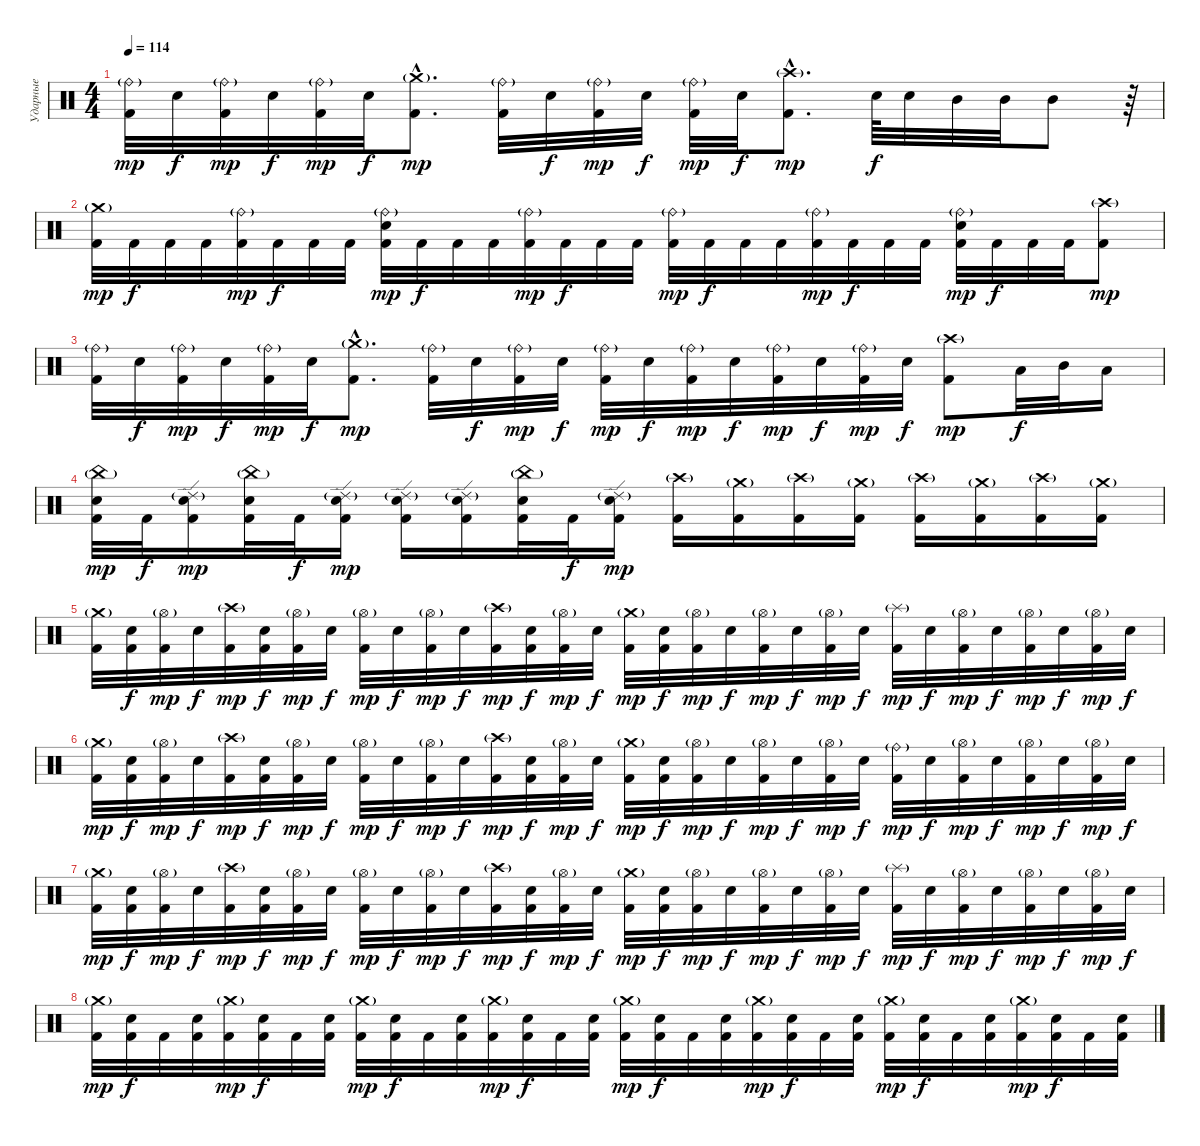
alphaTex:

\track ("Ударные" "Ударные") {instrument percussion}
\staff {score}
\articulation defaults
\ts (4 4)
\tempo 114
\clef neutral
\ks c
("Ride (bell)"{g} "Kick (hit) 2").32{dy mp} "Electric Snare (hit)".32{dy f} ("Ride (bell)"{g} "Kick (hit) 2").32{dy mp} "Electric Snare (hit)".32{dy f} ("Ride (bell)"{g} "Kick (hit) 2").32{dy mp} "Electric Snare (hit)".32{dy f} ("Crash medium (hit)"{g hac} "Kick (hit) 2"{hac}).8{d dy mp} ("Ride (bell)"{g} "Kick (hit) 2").32 "Electric Snare (hit)".32{dy f} ("Ride (bell)"{g} "Kick (hit) 2").32{dy mp} "Electric Snare (hit)".32{dy f} ("Ride (bell)"{g} "Kick (hit) 2").32{dy mp} "Electric Snare (hit)".32{dy f} ("Crash high (hit)"{g hac} "Kick (hit) 2"{hac}).8{d dy mp} "Electric Snare (hit)".64{dy f} "Electric Snare (hit)".32 "Mid Tom (hit)".32 "Mid Tom (hit)".32 "Mid Tom (hit)".8 r.64 |
("Crash medium (hit)"{g} "Kick (hit) 2").32{dy mp} "Kick (hit) 2".32{dy f} "Kick (hit) 2".32 "Kick (hit) 2".32 ("Ride (bell)"{g} "Kick (hit) 2").32{dy mp} "Kick (hit) 2".32{dy f} "Kick (hit) 2".32 "Kick (hit) 2".32 ("Ride (bell)"{g} "Electric Snare (hit)" "Kick (hit) 2").32{dy mp} "Kick (hit) 2".32{dy f} "Kick (hit) 2".32 "Kick (hit) 2".32 ("Ride (bell)"{g} "Kick (hit) 2").32{dy mp} "Kick (hit) 2".32{dy f} "Kick (hit) 2".32 "Kick (hit) 2".32 ("Ride (bell)"{g} "Kick (hit) 2").32{dy mp} "Kick (hit) 2".32{dy f} "Kick (hit) 2".32 "Kick (hit) 2".32 ("Ride (bell)"{g} "Kick (hit) 2").32{dy mp} "Kick (hit) 2".32{dy f} "Kick (hit) 2".32 "Kick (hit) 2".32 ("Ride (bell)"{g} "Electric Snare (hit)" "Kick (hit) 2").32{dy mp} "Kick (hit) 2".32{dy f} "Kick (hit) 2".32 "Kick (hit) 2".32 ("Crash high (hit)"{g} "Kick (hit) 2").8{dy mp} |
("Ride (bell)"{g} "Kick (hit) 2").32 "Electric Snare (hit)".32{dy f} ("Ride (bell)"{g} "Kick (hit) 2").32{dy mp} "Electric Snare (hit)".32{dy f} ("Ride (bell)"{g} "Kick (hit) 2").32{dy mp} "Electric Snare (hit)".32{dy f} ("Crash medium (hit)"{g hac} "Kick (hit) 2"{hac}).8{d dy mp} ("Ride (bell)"{g} "Kick (hit) 2").32 "Electric Snare (hit)".32{dy f} ("Ride (bell)"{g} "Kick (hit) 2").32{dy mp} "Electric Snare (hit)".32{dy f} ("Ride (bell)"{g} "Kick (hit) 2").32{dy mp} "Electric Snare (hit)".32{dy f} ("Ride (bell)"{g} "Kick (hit) 2").32{dy mp} "Electric Snare (hit)".32{dy f} ("Ride (bell)"{g} "Kick (hit) 2").32{dy mp} "Electric Snare (hit)".32{dy f} ("Ride (bell)"{g} "Kick (hit) 2").32{dy mp} "Electric Snare (hit)".32{dy f} ("Crash high (hit)"{g} "Kick (hit) 2").8{dy mp} "Low Tom (hit)".32{dy f} "Mid Tom (hit)".32 "Low Tom (hit)".16 |
("China (hit)"{g} "Electric Snare (hit)" "Kick (hit) 2").32{dy mp} "Kick (hit) 2".32{dy f} ("Ride (edge) 2"{g} "Electric Snare (hit)" "Kick (hit) 2").16{dy mp} ("China (hit)"{g} "Electric Snare (hit)" "Kick (hit) 2").32 "Kick (hit) 2".32{dy f} ("Ride (edge) 2"{g} "Electric Snare (hit)" "Kick (hit) 2").16{dy mp} ("Ride (edge) 2"{g} "Electric Snare (hit)" "Kick (hit) 2").16 ("Ride (edge) 2"{g} "Electric Snare (hit)" "Kick (hit) 2").16 ("China (hit)"{g} "Electric Snare (hit)" "Kick (hit) 2").32 "Kick (hit) 2".32{dy f} ("Ride (edge) 2"{g} "Electric Snare (hit)" "Kick (hit) 2").16{dy mp} ("Crash high (hit)"{g} "Kick (hit) 2").16 ("Crash medium (hit)"{g} "Kick (hit) 2").16 ("Crash high (hit)"{g} "Kick (hit) 2").16 ("Crash medium (hit)"{g} "Kick (hit) 2").16 ("Crash high (hit)"{g} "Kick (hit) 2").16 ("Crash medium (hit)"{g} "Kick (hit) 2").16 ("Crash high (hit)"{g} "Kick (hit) 2").16 ("Crash medium (hit)"{g} "Kick (hit) 2").16 |
("Crash medium (hit)"{g} "Kick (hit) 2").32 ("Electric Snare (hit)" "Kick (hit) 2").32{dy f} ("Hi-Hat (open)"{g} "Kick (hit) 2").32{dy mp} "Electric Snare (hit)".32{dy f} ("Crash high (hit)"{g} "Kick (hit) 2").32{dy mp} ("Electric Snare (hit)" "Kick (hit) 2").32{dy f} ("Hi-Hat (open)"{g} "Kick (hit) 2").32{dy mp} "Electric Snare (hit)".32{dy f} ("Hi-Hat (open)"{g} "Kick (hit) 2").32{dy mp} "Electric Snare (hit)".32{dy f} ("Hi-Hat (open)"{g} "Kick (hit) 2").32{dy mp} "Electric Snare (hit)".32{dy f} ("Crash high (hit)"{g} "Kick (hit) 2").32{dy mp} ("Electric Snare (hit)" "Kick (hit) 2").32{dy f} ("Hi-Hat (open)"{g} "Kick (hit) 2").32{dy mp} "Electric Snare (hit)".32{dy f} ("Crash medium (hit)"{g} "Kick (hit) 2").32{dy mp} ("Electric Snare (hit)" "Kick (hit) 2").32{dy f} ("Hi-Hat (open)"{g} "Kick (hit) 2").32{dy mp} "Electric Snare (hit)".32{dy f} ("Hi-Hat (open)"{g} "Kick (hit) 2").32{dy mp} "Electric Snare (hit)".32{dy f} ("Hi-Hat (open)"{g} "Kick (hit) 2").32{dy mp} "Electric Snare (hit)".32{dy f} ("Splash (hit)"{g} "Kick (hit) 2").32{dy mp} "Electric Snare (hit)".32{dy f} ("Hi-Hat (open)"{g} "Kick (hit) 2").32{dy mp} "Electric Snare (hit)".32{dy f} ("Hi-Hat (open)"{g} "Kick (hit) 2").32{dy mp} "Electric Snare (hit)".32{dy f} ("Hi-Hat (open)"{g} "Kick (hit) 2").32{dy mp} "Electric Snare (hit)".32{dy f} |
("Crash medium (hit)"{g} "Kick (hit) 2").32{dy mp} ("Electric Snare (hit)" "Kick (hit) 2").32{dy f} ("Hi-Hat (open)"{g} "Kick (hit) 2").32{dy mp} "Electric Snare (hit)".32{dy f} ("Crash high (hit)"{g} "Kick (hit) 2").32{dy mp} ("Electric Snare (hit)" "Kick (hit) 2").32{dy f} ("Hi-Hat (open)"{g} "Kick (hit) 2").32{dy mp} "Electric Snare (hit)".32{dy f} ("Hi-Hat (open)"{g} "Kick (hit) 2").32{dy mp} "Electric Snare (hit)".32{dy f} ("Hi-Hat (open)"{g} "Kick (hit) 2").32{dy mp} "Electric Snare (hit)".32{dy f} ("Crash high (hit)"{g} "Kick (hit) 2").32{dy mp} ("Electric Snare (hit)" "Kick (hit) 2").32{dy f} ("Hi-Hat (open)"{g} "Kick (hit) 2").32{dy mp} "Electric Snare (hit)".32{dy f} ("Crash medium (hit)"{g} "Kick (hit) 2").32{dy mp} ("Electric Snare (hit)" "Kick (hit) 2").32{dy f} ("Hi-Hat (open)"{g} "Kick (hit) 2").32{dy mp} "Electric Snare (hit)".32{dy f} ("Hi-Hat (open)"{g} "Kick (hit) 2").32{dy mp} "Electric Snare (hit)".32{dy f} ("Hi-Hat (open)"{g} "Kick (hit) 2").32{dy mp} "Electric Snare (hit)".32{dy f} ("Ride (bell)"{g} "Kick (hit) 2").32{dy mp} "Electric Snare (hit)".32{dy f} ("Hi-Hat (open)"{g} "Kick (hit) 2").32{dy mp} "Electric Snare (hit)".32{dy f} ("Hi-Hat (open)"{g} "Kick (hit) 2").32{dy mp} "Electric Snare (hit)".32{dy f} ("Hi-Hat (open)"{g} "Kick (hit) 2").32{dy mp} "Electric Snare (hit)".32{dy f} |
("Crash medium (hit)"{g} "Kick (hit) 2").32{dy mp} ("Electric Snare (hit)" "Kick (hit) 2").32{dy f} ("Hi-Hat (open)"{g} "Kick (hit) 2").32{dy mp} "Electric Snare (hit)".32{dy f} ("Crash high (hit)"{g} "Kick (hit) 2").32{dy mp} ("Electric Snare (hit)" "Kick (hit) 2").32{dy f} ("Hi-Hat (open)"{g} "Kick (hit) 2").32{dy mp} "Electric Snare (hit)".32{dy f} ("Hi-Hat (open)"{g} "Kick (hit) 2").32{dy mp} "Electric Snare (hit)".32{dy f} ("Hi-Hat (open)"{g} "Kick (hit) 2").32{dy mp} "Electric Snare (hit)".32{dy f} ("Crash high (hit)"{g} "Kick (hit) 2").32{dy mp} ("Electric Snare (hit)" "Kick (hit) 2").32{dy f} ("Hi-Hat (open)"{g} "Kick (hit) 2").32{dy mp} "Electric Snare (hit)".32{dy f} ("Crash medium (hit)"{g} "Kick (hit) 2").32{dy mp} ("Electric Snare (hit)" "Kick (hit) 2").32{dy f} ("Hi-Hat (open)"{g} "Kick (hit) 2").32{dy mp} "Electric Snare (hit)".32{dy f} ("Hi-Hat (open)"{g} "Kick (hit) 2").32{dy mp} "Electric Snare (hit)".32{dy f} ("Hi-Hat (open)"{g} "Kick (hit) 2").32{dy mp} "Electric Snare (hit)".32{dy f} ("Splash (hit)"{g} "Kick (hit) 2").32{dy mp} "Electric Snare (hit)".32{dy f} ("Hi-Hat (open)"{g} "Kick (hit) 2").32{dy mp} "Electric Snare (hit)".32{dy f} ("Hi-Hat (open)"{g} "Kick (hit) 2").32{dy mp} "Electric Snare (hit)".32{dy f} ("Hi-Hat (open)"{g} "Kick (hit) 2").32{dy mp} "Electric Snare (hit)".32{dy f} |
("Crash medium (hit)"{g} "Kick (hit) 2").32{dy mp} ("Electric Snare (hit)" "Kick (hit) 2").32{dy f} "Kick (hit) 2".32 ("Electric Snare (hit)" "Kick (hit) 2").32 ("Crash medium (hit)"{g} "Kick (hit) 2").32{dy mp} ("Electric Snare (hit)" "Kick (hit) 2").32{dy f} "Kick (hit) 2".32 ("Electric Snare (hit)" "Kick (hit) 2").32 ("Crash medium (hit)"{g} "Kick (hit) 2").32{dy mp} ("Electric Snare (hit)" "Kick (hit) 2").32{dy f} "Kick (hit) 2".32 ("Electric Snare (hit)" "Kick (hit) 2").32 ("Crash medium (hit)"{g} "Kick (hit) 2").32{dy mp} ("Electric Snare (hit)" "Kick (hit) 2").32{dy f} "Kick (hit) 2".32 ("Electric Snare (hit)" "Kick (hit) 2").32 ("Crash medium (hit)"{g} "Kick (hit) 2").32{dy mp} ("Electric Snare (hit)" "Kick (hit) 2").32{dy f} "Kick (hit) 2".32 ("Electric Snare (hit)" "Kick (hit) 2").32 ("Crash medium (hit)"{g} "Kick (hit) 2").32{dy mp} ("Electric Snare (hit)" "Kick (hit) 2").32{dy f} "Kick (hit) 2".32 ("Electric Snare (hit)" "Kick (hit) 2").32 ("Crash medium (hit)"{g} "Kick (hit) 2").32{dy mp} ("Electric Snare (hit)" "Kick (hit) 2").32{dy f} "Kick (hit) 2".32 ("Electric Snare (hit)" "Kick (hit) 2").32 ("Crash medium (hit)"{g} "Kick (hit) 2").32{dy mp} ("Electric Snare (hit)" "Kick (hit) 2").32{dy f} "Kick (hit) 2".32 ("Electric Snare (hit)" "Kick (hit) 2").32
